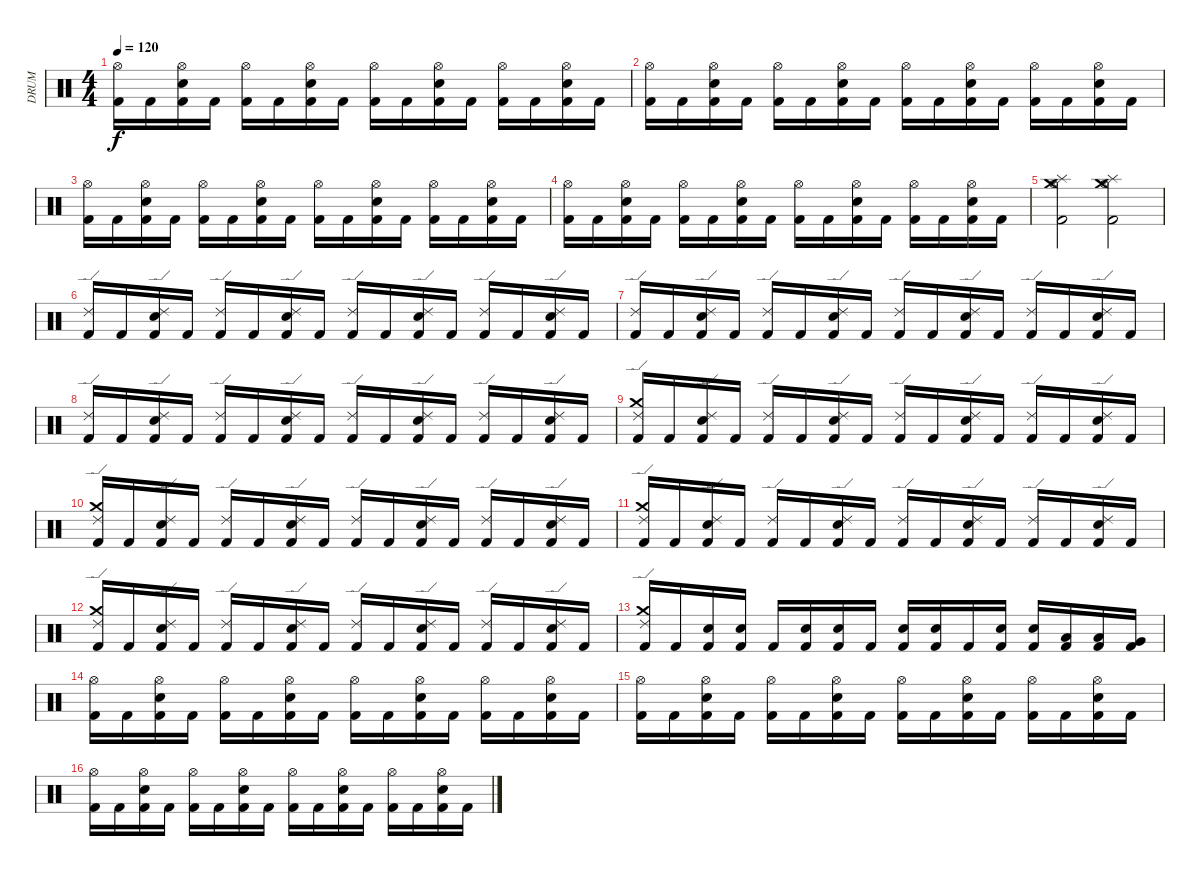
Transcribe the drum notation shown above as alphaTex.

\track (" DRUM" " DRUM") {instrument percussion}
\staff {score}
\articulation defaults
\ts (4 4)
\tempo 120
\clef neutral
\ks c
("Kick (hit) 2" "Hi-Hat (open)").16{dy f} "Kick (hit) 2".16 ("Kick (hit) 2" "Electric Snare (hit)" "Hi-Hat (open)").16 "Kick (hit) 2".16 ("Kick (hit) 2" "Hi-Hat (open)").16 "Kick (hit) 2".16 ("Kick (hit) 2" "Electric Snare (hit)" "Hi-Hat (open)").16 "Kick (hit) 2".16 ("Kick (hit) 2" "Hi-Hat (open)").16 "Kick (hit) 2".16 ("Kick (hit) 2" "Electric Snare (hit)" "Hi-Hat (open)").16 "Kick (hit) 2".16 ("Kick (hit) 2" "Hi-Hat (open)").16 "Kick (hit) 2".16 ("Kick (hit) 2" "Electric Snare (hit)" "Hi-Hat (open)").16 "Kick (hit) 2".16 |
("Kick (hit) 2" "Hi-Hat (open)").16 "Kick (hit) 2".16 ("Kick (hit) 2" "Electric Snare (hit)" "Hi-Hat (open)").16 "Kick (hit) 2".16 ("Kick (hit) 2" "Hi-Hat (open)").16 "Kick (hit) 2".16 ("Kick (hit) 2" "Electric Snare (hit)" "Hi-Hat (open)").16 "Kick (hit) 2".16 ("Kick (hit) 2" "Hi-Hat (open)").16 "Kick (hit) 2".16 ("Kick (hit) 2" "Electric Snare (hit)" "Hi-Hat (open)").16 "Kick (hit) 2".16 ("Kick (hit) 2" "Hi-Hat (open)").16 "Kick (hit) 2".16 ("Kick (hit) 2" "Electric Snare (hit)" "Hi-Hat (open)").16 "Kick (hit) 2".16 |
("Kick (hit) 2" "Hi-Hat (open)").16 "Kick (hit) 2".16 ("Kick (hit) 2" "Electric Snare (hit)" "Hi-Hat (open)").16 "Kick (hit) 2".16 ("Kick (hit) 2" "Hi-Hat (open)").16 "Kick (hit) 2".16 ("Kick (hit) 2" "Electric Snare (hit)" "Hi-Hat (open)").16 "Kick (hit) 2".16 ("Kick (hit) 2" "Hi-Hat (open)").16 "Kick (hit) 2".16 ("Kick (hit) 2" "Electric Snare (hit)" "Hi-Hat (open)").16 "Kick (hit) 2".16 ("Kick (hit) 2" "Hi-Hat (open)").16 "Kick (hit) 2".16 ("Kick (hit) 2" "Electric Snare (hit)" "Hi-Hat (open)").16 "Kick (hit) 2".16 |
("Kick (hit) 2" "Hi-Hat (open)").16 "Kick (hit) 2".16 ("Kick (hit) 2" "Electric Snare (hit)" "Hi-Hat (open)").16 "Kick (hit) 2".16 ("Kick (hit) 2" "Hi-Hat (open)").16 "Kick (hit) 2".16 ("Kick (hit) 2" "Electric Snare (hit)" "Hi-Hat (open)").16 "Kick (hit) 2".16 ("Kick (hit) 2" "Hi-Hat (open)").16 "Kick (hit) 2".16 ("Kick (hit) 2" "Electric Snare (hit)" "Hi-Hat (open)").16 "Kick (hit) 2".16 ("Kick (hit) 2" "Hi-Hat (open)").16 "Kick (hit) 2".16 ("Kick (hit) 2" "Electric Snare (hit)" "Hi-Hat (open)").16 "Kick (hit) 2".16 |
("Hi-Hat (open)" "Crash medium (hit)" "Splash (hit)" "Kick (hit) 2").2 ("Hi-Hat (open)" "Crash medium (hit)" "Splash (hit)" "Kick (hit) 2").2 |
("Kick (hit) 2" "Ride (edge) 2").16 "Kick (hit) 2".16 ("Kick (hit) 2" "Electric Snare (hit)" "Ride (edge) 2").16 "Kick (hit) 2".16 ("Kick (hit) 2" "Ride (edge) 2").16 "Kick (hit) 2".16 ("Kick (hit) 2" "Electric Snare (hit)" "Ride (edge) 2").16 "Kick (hit) 2".16 ("Kick (hit) 2" "Ride (edge) 2").16 "Kick (hit) 2".16 ("Kick (hit) 2" "Electric Snare (hit)" "Ride (edge) 2").16 "Kick (hit) 2".16 ("Kick (hit) 2" "Ride (edge) 2").16 "Kick (hit) 2".16 ("Kick (hit) 2" "Electric Snare (hit)" "Ride (edge) 2").16 "Kick (hit) 2".16 |
("Kick (hit) 2" "Ride (edge) 2").16 "Kick (hit) 2".16 ("Kick (hit) 2" "Electric Snare (hit)" "Ride (edge) 2").16 "Kick (hit) 2".16 ("Kick (hit) 2" "Ride (edge) 2").16 "Kick (hit) 2".16 ("Kick (hit) 2" "Electric Snare (hit)" "Ride (edge) 2").16 "Kick (hit) 2".16 ("Kick (hit) 2" "Ride (edge) 2").16 "Kick (hit) 2".16 ("Kick (hit) 2" "Electric Snare (hit)" "Ride (edge) 2").16 "Kick (hit) 2".16 ("Kick (hit) 2" "Ride (edge) 2").16 "Kick (hit) 2".16 ("Kick (hit) 2" "Electric Snare (hit)" "Ride (edge) 2").16 "Kick (hit) 2".16 |
("Kick (hit) 2" "Ride (edge) 2").16 "Kick (hit) 2".16 ("Kick (hit) 2" "Electric Snare (hit)" "Ride (edge) 2").16 "Kick (hit) 2".16 ("Kick (hit) 2" "Ride (edge) 2").16 "Kick (hit) 2".16 ("Kick (hit) 2" "Electric Snare (hit)" "Ride (edge) 2").16 "Kick (hit) 2".16 ("Kick (hit) 2" "Ride (edge) 2").16 "Kick (hit) 2".16 ("Kick (hit) 2" "Electric Snare (hit)" "Ride (edge) 2").16 "Kick (hit) 2".16 ("Kick (hit) 2" "Ride (edge) 2").16 "Kick (hit) 2".16 ("Kick (hit) 2" "Electric Snare (hit)" "Ride (edge) 2").16 "Kick (hit) 2".16 |
("Crash medium (hit)" "Kick (hit) 2" "Ride (edge) 2").16 "Kick (hit) 2".16 ("Kick (hit) 2" "Electric Snare (hit)" "Ride (edge) 2").16 "Kick (hit) 2".16 ("Kick (hit) 2" "Ride (edge) 2").16 "Kick (hit) 2".16 ("Kick (hit) 2" "Electric Snare (hit)" "Ride (edge) 2").16 "Kick (hit) 2".16 ("Kick (hit) 2" "Ride (edge) 2").16 "Kick (hit) 2".16 ("Kick (hit) 2" "Electric Snare (hit)" "Ride (edge) 2").16 "Kick (hit) 2".16 ("Kick (hit) 2" "Ride (edge) 2").16 "Kick (hit) 2".16 ("Kick (hit) 2" "Electric Snare (hit)" "Ride (edge) 2").16 "Kick (hit) 2".16 |
("Crash medium (hit)" "Kick (hit) 2" "Ride (edge) 2").16 "Kick (hit) 2".16 ("Kick (hit) 2" "Electric Snare (hit)" "Ride (edge) 2").16 "Kick (hit) 2".16 ("Kick (hit) 2" "Ride (edge) 2").16 "Kick (hit) 2".16 ("Kick (hit) 2" "Electric Snare (hit)" "Ride (edge) 2").16 "Kick (hit) 2".16 ("Kick (hit) 2" "Ride (edge) 2").16 "Kick (hit) 2".16 ("Kick (hit) 2" "Electric Snare (hit)" "Ride (edge) 2").16 "Kick (hit) 2".16 ("Kick (hit) 2" "Ride (edge) 2").16 "Kick (hit) 2".16 ("Kick (hit) 2" "Electric Snare (hit)" "Ride (edge) 2").16 "Kick (hit) 2".16 |
("Crash medium (hit)" "Kick (hit) 2" "Ride (edge) 2").16 "Kick (hit) 2".16 ("Kick (hit) 2" "Electric Snare (hit)" "Ride (edge) 2").16 "Kick (hit) 2".16 ("Kick (hit) 2" "Ride (edge) 2").16 "Kick (hit) 2".16 ("Kick (hit) 2" "Electric Snare (hit)" "Ride (edge) 2").16 "Kick (hit) 2".16 ("Kick (hit) 2" "Ride (edge) 2").16 "Kick (hit) 2".16 ("Kick (hit) 2" "Electric Snare (hit)" "Ride (edge) 2").16 "Kick (hit) 2".16 ("Kick (hit) 2" "Ride (edge) 2").16 "Kick (hit) 2".16 ("Kick (hit) 2" "Electric Snare (hit)" "Ride (edge) 2").16 "Kick (hit) 2".16 |
("Crash medium (hit)" "Kick (hit) 2" "Ride (edge) 2").16 "Kick (hit) 2".16 ("Kick (hit) 2" "Electric Snare (hit)" "Ride (edge) 2").16 "Kick (hit) 2".16 ("Kick (hit) 2" "Ride (edge) 2").16 "Kick (hit) 2".16 ("Kick (hit) 2" "Electric Snare (hit)" "Ride (edge) 2").16 "Kick (hit) 2".16 ("Kick (hit) 2" "Ride (edge) 2").16 "Kick (hit) 2".16 ("Kick (hit) 2" "Electric Snare (hit)" "Ride (edge) 2").16 "Kick (hit) 2".16 ("Kick (hit) 2" "Ride (edge) 2").16 "Kick (hit) 2".16 ("Kick (hit) 2" "Electric Snare (hit)" "Ride (edge) 2").16 "Kick (hit) 2".16 |
("Crash medium (hit)" "Kick (hit) 2" "Ride (edge) 2").16 "Kick (hit) 2".16 ("Electric Snare (hit)" "Kick (hit) 2").16 ("Electric Snare (hit)" "Kick (hit) 2").16 "Kick (hit) 2".16 ("Electric Snare (hit)" "Kick (hit) 2").16 ("Electric Snare (hit)" "Kick (hit) 2").16 "Kick (hit) 2".16 ("Electric Snare (hit)" "Kick (hit) 2").16 ("Electric Snare (hit)" "Kick (hit) 2").16 "Kick (hit) 2".16 ("Electric Snare (hit)" "Kick (hit) 2").16 ("Electric Snare (hit)" "Kick (hit) 2").16 ("Low Tom (hit)" "Kick (hit) 2").16 ("Low Tom (hit)" "Kick (hit) 2").16 ("Very Low Tom (hit)" "Kick (hit) 2").16 |
("Hi-Hat (open)" "Kick (hit) 2").16 "Kick (hit) 2".16 ("Hi-Hat (open)" "Electric Snare (hit)" "Kick (hit) 2").16 "Kick (hit) 2".16 ("Hi-Hat (open)" "Kick (hit) 2").16 "Kick (hit) 2".16 ("Hi-Hat (open)" "Electric Snare (hit)" "Kick (hit) 2").16 "Kick (hit) 2".16 ("Hi-Hat (open)" "Kick (hit) 2").16 "Kick (hit) 2".16 ("Hi-Hat (open)" "Electric Snare (hit)" "Kick (hit) 2").16 "Kick (hit) 2".16 ("Hi-Hat (open)" "Kick (hit) 2").16 "Kick (hit) 2".16 ("Hi-Hat (open)" "Electric Snare (hit)" "Kick (hit) 2").16 "Kick (hit) 2".16 |
("Hi-Hat (open)" "Kick (hit) 2").16 "Kick (hit) 2".16 ("Hi-Hat (open)" "Electric Snare (hit)" "Kick (hit) 2").16 "Kick (hit) 2".16 ("Hi-Hat (open)" "Kick (hit) 2").16 "Kick (hit) 2".16 ("Hi-Hat (open)" "Electric Snare (hit)" "Kick (hit) 2").16 "Kick (hit) 2".16 ("Hi-Hat (open)" "Kick (hit) 2").16 "Kick (hit) 2".16 ("Hi-Hat (open)" "Electric Snare (hit)" "Kick (hit) 2").16 "Kick (hit) 2".16 ("Hi-Hat (open)" "Kick (hit) 2").16 "Kick (hit) 2".16 ("Hi-Hat (open)" "Electric Snare (hit)" "Kick (hit) 2").16 "Kick (hit) 2".16 |
("Hi-Hat (open)" "Kick (hit) 2").16 "Kick (hit) 2".16 ("Hi-Hat (open)" "Electric Snare (hit)" "Kick (hit) 2").16 "Kick (hit) 2".16 ("Hi-Hat (open)" "Kick (hit) 2").16 "Kick (hit) 2".16 ("Hi-Hat (open)" "Electric Snare (hit)" "Kick (hit) 2").16 "Kick (hit) 2".16 ("Hi-Hat (open)" "Kick (hit) 2").16 "Kick (hit) 2".16 ("Hi-Hat (open)" "Electric Snare (hit)" "Kick (hit) 2").16 "Kick (hit) 2".16 ("Hi-Hat (open)" "Kick (hit) 2").16 "Kick (hit) 2".16 ("Hi-Hat (open)" "Electric Snare (hit)" "Kick (hit) 2").16 "Kick (hit) 2".16
